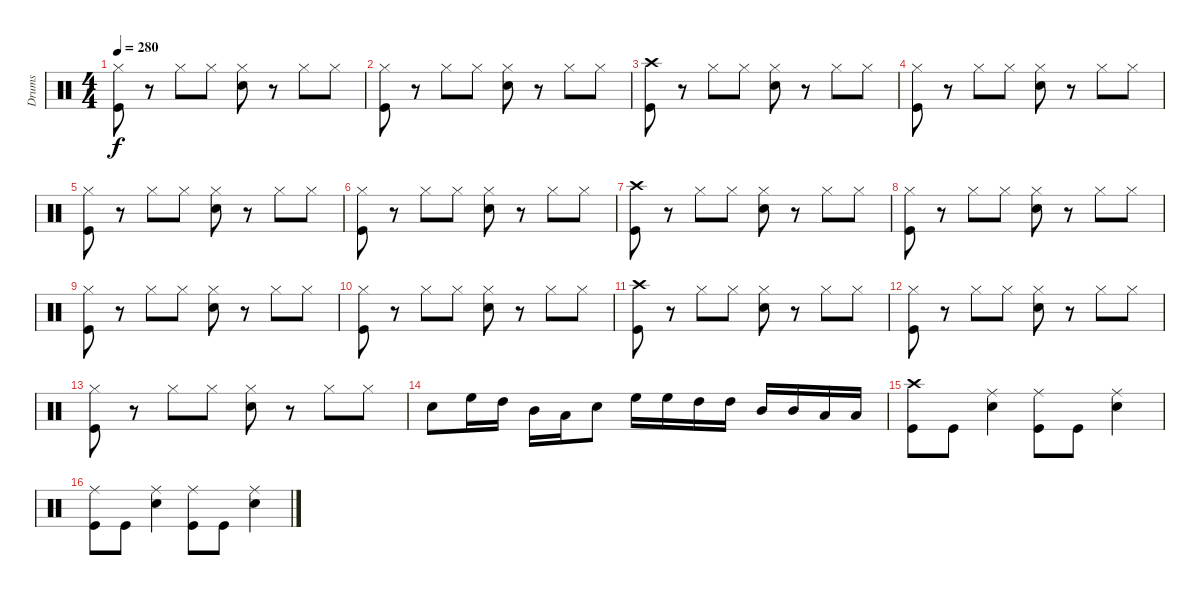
\track ("Drums" "Drums") {instrument percussion}
\staff {score}
\articulation defaults
\ts (4 4)
\tempo 280
\clef neutral
\ks c
("Hi-Hat (closed)" "Kick (hit)").8{dy f} r.8 "Hi-Hat (closed)".8 "Hi-Hat (closed)".8 ("Hi-Hat (closed)" "Electric Snare (hit)").8 r.8 "Hi-Hat (closed)".8 "Hi-Hat (closed)".8 |
("Hi-Hat (closed)" "Kick (hit)").8 r.8 "Hi-Hat (closed)".8 "Hi-Hat (closed)".8 ("Hi-Hat (closed)" "Electric Snare (hit)").8 r.8 "Hi-Hat (closed)".8 "Hi-Hat (closed)".8 |
("Crash high (hit)" "Kick (hit)").8 r.8 "Hi-Hat (closed)".8 "Hi-Hat (closed)".8 ("Hi-Hat (closed)" "Electric Snare (hit)").8 r.8 "Hi-Hat (closed)".8 "Hi-Hat (closed)".8 |
("Hi-Hat (closed)" "Kick (hit)").8 r.8 "Hi-Hat (closed)".8 "Hi-Hat (closed)".8 ("Hi-Hat (closed)" "Electric Snare (hit)").8 r.8 "Hi-Hat (closed)".8 "Hi-Hat (closed)".8 |
("Hi-Hat (closed)" "Kick (hit)").8 r.8 "Hi-Hat (closed)".8 "Hi-Hat (closed)".8 ("Hi-Hat (closed)" "Electric Snare (hit)").8 r.8 "Hi-Hat (closed)".8 "Hi-Hat (closed)".8 |
("Hi-Hat (closed)" "Kick (hit)").8 r.8 "Hi-Hat (closed)".8 "Hi-Hat (closed)".8 ("Hi-Hat (closed)" "Electric Snare (hit)").8 r.8 "Hi-Hat (closed)".8 "Hi-Hat (closed)".8 |
("Crash high (hit)" "Kick (hit)").8 r.8 "Hi-Hat (closed)".8 "Hi-Hat (closed)".8 ("Hi-Hat (closed)" "Electric Snare (hit)").8 r.8 "Hi-Hat (closed)".8 "Hi-Hat (closed)".8 |
("Hi-Hat (closed)" "Kick (hit)").8 r.8 "Hi-Hat (closed)".8 "Hi-Hat (closed)".8 ("Hi-Hat (closed)" "Electric Snare (hit)").8 r.8 "Hi-Hat (closed)".8 "Hi-Hat (closed)".8 |
("Hi-Hat (closed)" "Kick (hit)").8 r.8 "Hi-Hat (closed)".8 "Hi-Hat (closed)".8 ("Hi-Hat (closed)" "Electric Snare (hit)").8 r.8 "Hi-Hat (closed)".8 "Hi-Hat (closed)".8 |
("Hi-Hat (closed)" "Kick (hit)").8 r.8 "Hi-Hat (closed)".8 "Hi-Hat (closed)".8 ("Hi-Hat (closed)" "Electric Snare (hit)").8 r.8 "Hi-Hat (closed)".8 "Hi-Hat (closed)".8 |
("Crash high (hit)" "Kick (hit)").8 r.8 "Hi-Hat (closed)".8 "Hi-Hat (closed)".8 ("Hi-Hat (closed)" "Electric Snare (hit)").8 r.8 "Hi-Hat (closed)".8 "Hi-Hat (closed)".8 |
("Hi-Hat (closed)" "Kick (hit)").8 r.8 "Hi-Hat (closed)".8 "Hi-Hat (closed)".8 ("Hi-Hat (closed)" "Electric Snare (hit)").8 r.8 "Hi-Hat (closed)".8 "Hi-Hat (closed)".8 |
("Hi-Hat (closed)" "Kick (hit)").8 r.8 "Hi-Hat (closed)".8 "Hi-Hat (closed)".8 ("Hi-Hat (closed)" "Electric Snare (hit)").8 r.8 "Hi-Hat (closed)".8 "Hi-Hat (closed)".8 |
"Electric Snare (hit)".8 "High Floor Tom (hit)".16 "High Tom (hit)".16 "Mid Tom (hit)".16 "Low Tom (hit)".16 "Electric Snare (hit)".8 "High Floor Tom (hit)".16 "High Floor Tom (hit)".16 "High Tom (hit)".16 "High Tom (hit)".16 "Mid Tom (hit)".16 "Mid Tom (hit)".16 "Low Tom (hit)".16 "Low Tom (hit)".16 |
("Crash high (hit)" "Kick (hit)").8 "Kick (hit)".8 ("Ride (middle)" "Electric Snare (hit)").4 ("Ride (middle)" "Kick (hit)").8 "Kick (hit)".8 ("Ride (middle)" "Electric Snare (hit)").4 |
("Ride (middle)" "Kick (hit)").8 "Kick (hit)".8 ("Ride (middle)" "Electric Snare (hit)").4 ("Ride (middle)" "Kick (hit)").8 "Kick (hit)".8 ("Ride (middle)" "Electric Snare (hit)").4
